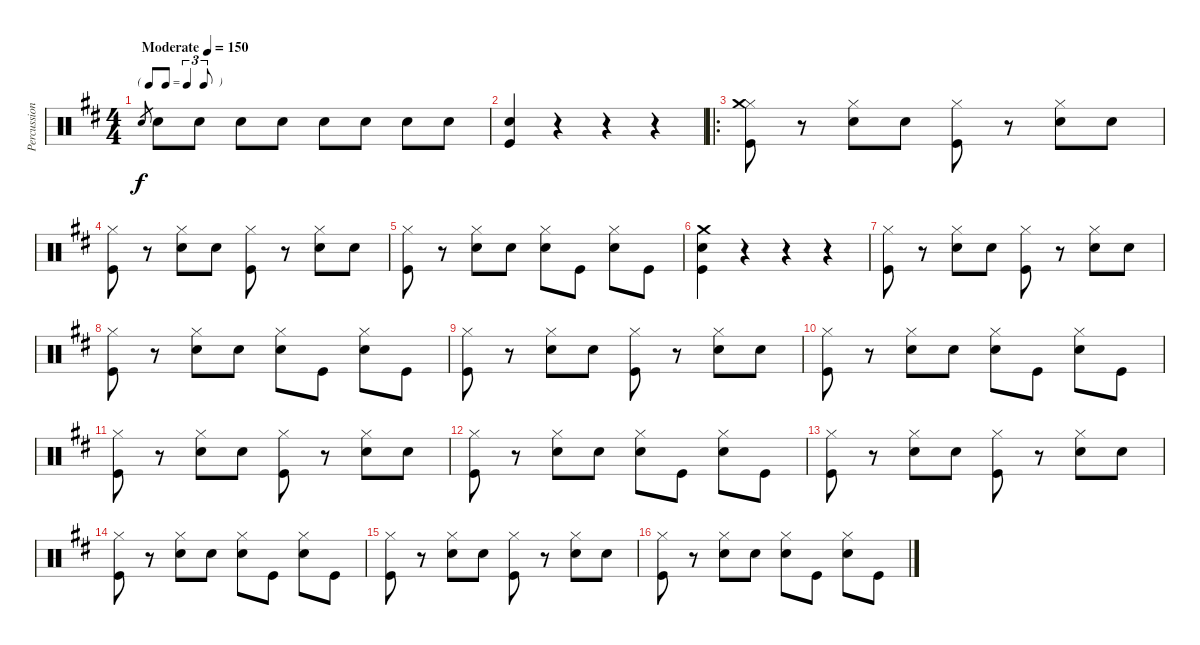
\track ("Percussion" "Percussion") {instrument percussion}
\staff {score}
\articulation defaults
\ts (4 4)
\tf triplet8th
\tempo (150 "Moderate")
\clef neutral
\ks d "Electric Snare (hit)".8{gr dy f} "Electric Snare (hit)".8 "Electric Snare (hit)".8 "Electric Snare (hit)".8 "Electric Snare (hit)".8 "Electric Snare (hit)".8 "Electric Snare (hit)".8 "Electric Snare (hit)".8 "Electric Snare (hit)".8
|
("Electric Snare (hit)" "Kick (hit)").4 r.4 r.4 r.4 |
\ro
("Hi-Hat (closed)" "Crash medium (hit)" "Kick (hit)").8 r.8 ("Hi-Hat (closed)" "Electric Snare (hit)").8 "Electric Snare (hit)".8 ("Hi-Hat (closed)" "Kick (hit)").8 r.8 ("Hi-Hat (closed)" "Electric Snare (hit)").8 "Electric Snare (hit)".8 |
("Hi-Hat (closed)" "Kick (hit)").8 r.8 ("Hi-Hat (closed)" "Electric Snare (hit)").8 "Electric Snare (hit)".8 ("Hi-Hat (closed)" "Kick (hit)").8 r.8 ("Hi-Hat (closed)" "Electric Snare (hit)").8 "Electric Snare (hit)".8 |
("Hi-Hat (closed)" "Kick (hit)").8 r.8 ("Hi-Hat (closed)" "Electric Snare (hit)").8 "Electric Snare (hit)".8 ("Hi-Hat (closed)" "Electric Snare (hit)").8 "Kick (hit)".8 ("Hi-Hat (closed)" "Electric Snare (hit)").8 "Kick (hit)".8 |
("Crash medium (hit)" "Electric Snare (hit)" "Kick (hit)").4 r.4 r.4 r.4 |
("Hi-Hat (closed)" "Kick (hit)").8 r.8 ("Hi-Hat (closed)" "Electric Snare (hit)").8 "Electric Snare (hit)".8 ("Hi-Hat (closed)" "Kick (hit)").8 r.8 ("Hi-Hat (closed)" "Electric Snare (hit)").8 "Electric Snare (hit)".8 |
("Hi-Hat (closed)" "Kick (hit)").8 r.8 ("Hi-Hat (closed)" "Electric Snare (hit)").8 "Electric Snare (hit)".8 ("Hi-Hat (closed)" "Electric Snare (hit)").8 "Kick (hit)".8 ("Hi-Hat (closed)" "Electric Snare (hit)").8 "Kick (hit)".8 |
("Hi-Hat (closed)" "Kick (hit)").8 r.8 ("Hi-Hat (closed)" "Electric Snare (hit)").8 "Electric Snare (hit)".8 ("Hi-Hat (closed)" "Kick (hit)").8 r.8 ("Hi-Hat (closed)" "Electric Snare (hit)").8 "Electric Snare (hit)".8 |
("Hi-Hat (closed)" "Kick (hit)").8 r.8 ("Hi-Hat (closed)" "Electric Snare (hit)").8 "Electric Snare (hit)".8 ("Hi-Hat (closed)" "Electric Snare (hit)").8 "Kick (hit)".8 ("Hi-Hat (closed)" "Electric Snare (hit)").8 "Kick (hit)".8 |
("Hi-Hat (closed)" "Kick (hit)").8 r.8 ("Hi-Hat (closed)" "Electric Snare (hit)").8 "Electric Snare (hit)".8 ("Hi-Hat (closed)" "Kick (hit)").8 r.8 ("Hi-Hat (closed)" "Electric Snare (hit)").8 "Electric Snare (hit)".8 |
("Hi-Hat (closed)" "Kick (hit)").8 r.8 ("Hi-Hat (closed)" "Electric Snare (hit)").8 "Electric Snare (hit)".8 ("Hi-Hat (closed)" "Electric Snare (hit)").8 "Kick (hit)".8 ("Hi-Hat (closed)" "Electric Snare (hit)").8 "Kick (hit)".8 |
("Hi-Hat (closed)" "Kick (hit)").8 r.8 ("Hi-Hat (closed)" "Electric Snare (hit)").8 "Electric Snare (hit)".8 ("Hi-Hat (closed)" "Kick (hit)").8 r.8 ("Hi-Hat (closed)" "Electric Snare (hit)").8 "Electric Snare (hit)".8 |
("Hi-Hat (closed)" "Kick (hit)").8 r.8 ("Hi-Hat (closed)" "Electric Snare (hit)").8 "Electric Snare (hit)".8 ("Hi-Hat (closed)" "Electric Snare (hit)").8 "Kick (hit)".8 ("Hi-Hat (closed)" "Electric Snare (hit)").8 "Kick (hit)".8 |
("Hi-Hat (closed)" "Kick (hit)").8 r.8 ("Hi-Hat (closed)" "Electric Snare (hit)").8 "Electric Snare (hit)".8 ("Hi-Hat (closed)" "Kick (hit)").8 r.8 ("Hi-Hat (closed)" "Electric Snare (hit)").8 "Electric Snare (hit)".8 |
("Hi-Hat (closed)" "Kick (hit)").8 r.8 ("Hi-Hat (closed)" "Electric Snare (hit)").8 "Electric Snare (hit)".8 ("Hi-Hat (closed)" "Electric Snare (hit)").8 "Kick (hit)".8 ("Hi-Hat (closed)" "Electric Snare (hit)").8 "Kick (hit)".8
